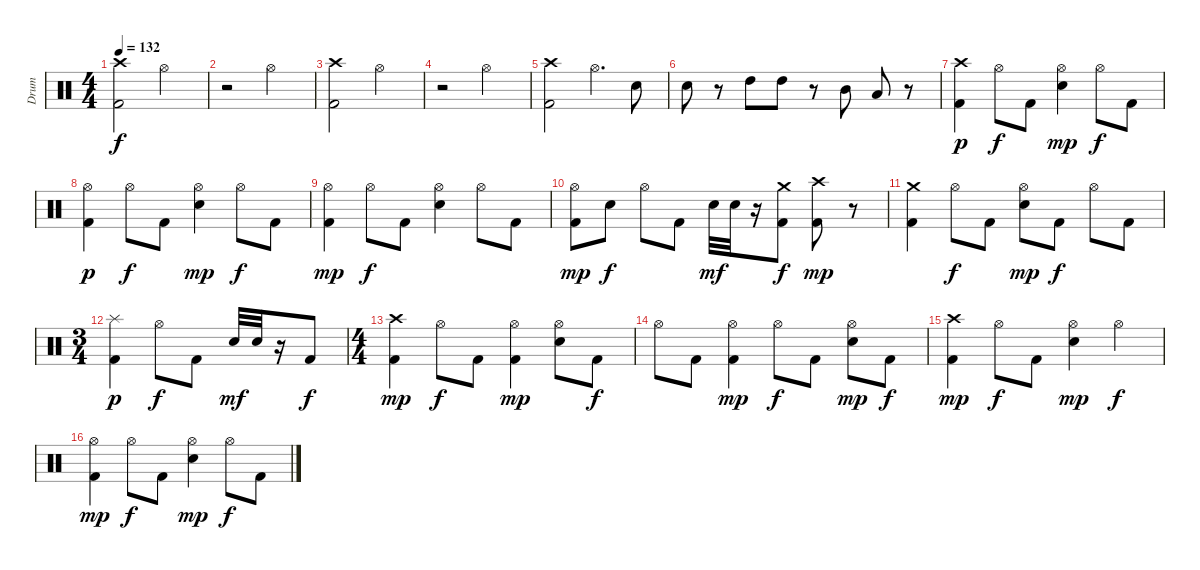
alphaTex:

\track ("Drum" "Drum") {instrument percussion}
\staff {score}
\articulation defaults
\ts (4 4)
\tempo 132
\clef neutral
\ks c
("Kick (hit) 2" "Crash high (hit)").2{dy f} "Hi-Hat (open)".2 |
r.2 "Hi-Hat (open)".2 |
("Crash high (hit)" "Kick (hit) 2").2 "Hi-Hat (open)".2 |
r.2 "Hi-Hat (open)".2 |
("Crash high (hit)" "Kick (hit) 2").2 "Hi-Hat (open)".4{d} "Electric Snare (hit)".8 |
"Electric Snare (hit)".8 r.8 "High Tom (hit)".8 "High Tom (hit)".8 r.8 "Mid Tom (hit)".8 "Low Tom (hit)".8 r.8 |
("Kick (hit) 2" "Crash high (hit)").4{dy p} "Hi-Hat (open)".8{dy f} "Kick (hit) 2".8 ("Electric Snare (hit)" "Hi-Hat (open)").4{dy mp} "Hi-Hat (open)".8{dy f} "Kick (hit) 2".8 |
("Hi-Hat (open)" "Kick (hit) 2").4{dy p} "Hi-Hat (open)".8{dy f} "Kick (hit) 2".8 ("Hi-Hat (open)" "Electric Snare (hit)").4{dy mp} "Hi-Hat (open)".8{dy f} "Kick (hit) 2".8 |
("Kick (hit) 2" "Hi-Hat (open)").4{dy mp} "Hi-Hat (open)".8{dy f} "Kick (hit) 2".8 ("Hi-Hat (open)" "Electric Snare (hit)").4 "Hi-Hat (open)".8 "Kick (hit) 2".8 |
("Hi-Hat (open)" "Kick (hit) 2").8{dy mp} "Electric Snare (hit)".8{dy f} "Hi-Hat (open)".8 "Kick (hit) 2".8 "Electric Snare (hit)".32{dy mf} "Electric Snare (hit)".32 r.16 ("Kick (hit) 2" "Crash medium (hit)").8{dy f} ("Crash high (hit)" "Kick (hit) 2").8{dy mp} r.8 |
("Kick (hit) 2" "Crash medium (hit)").4 "Hi-Hat (open)".8{dy f} "Kick (hit) 2".8 ("Electric Snare (hit)" "Hi-Hat (open)").8{dy mp} "Kick (hit) 2".8{dy f} "Hi-Hat (open)".8 "Kick (hit) 2".8 |
\ts (3 4)
("Kick (hit) 2" "Splash (hit)").4{dy p} "Hi-Hat (open)".8{dy f} "Kick (hit) 2".8 "Electric Snare (hit)".32{dy mf} "Electric Snare (hit)".32 r.16 "Kick (hit) 2".8{dy f} |
\ts (4 4)
("Kick (hit) 2" "Crash high (hit)").4{dy mp} "Hi-Hat (open)".8{dy f} "Kick (hit) 2".8 ("Hi-Hat (open)" "Kick (hit) 2").4{dy mp} ("Hi-Hat (open)" "Electric Snare (hit)").8 "Kick (hit) 2".8{dy f} |
"Hi-Hat (open)".8 "Kick (hit) 2".8 ("Hi-Hat (open)" "Kick (hit) 2").4{dy mp} "Hi-Hat (open)".8{dy f} "Kick (hit) 2".8 ("Hi-Hat (open)" "Electric Snare (hit)").8{dy mp} "Kick (hit) 2".8{dy f} |
("Crash high (hit)" "Kick (hit) 2").4{dy mp} "Hi-Hat (open)".8{dy f} "Kick (hit) 2".8 ("Electric Snare (hit)" "Hi-Hat (open)").4{dy mp} "Hi-Hat (open)".4{dy f} |
("Hi-Hat (open)" "Kick (hit) 2").4{dy mp} "Hi-Hat (open)".8{dy f} "Kick (hit) 2".8 ("Hi-Hat (open)" "Electric Snare (hit)").4{dy mp} "Hi-Hat (open)".8{dy f} "Kick (hit) 2".8
